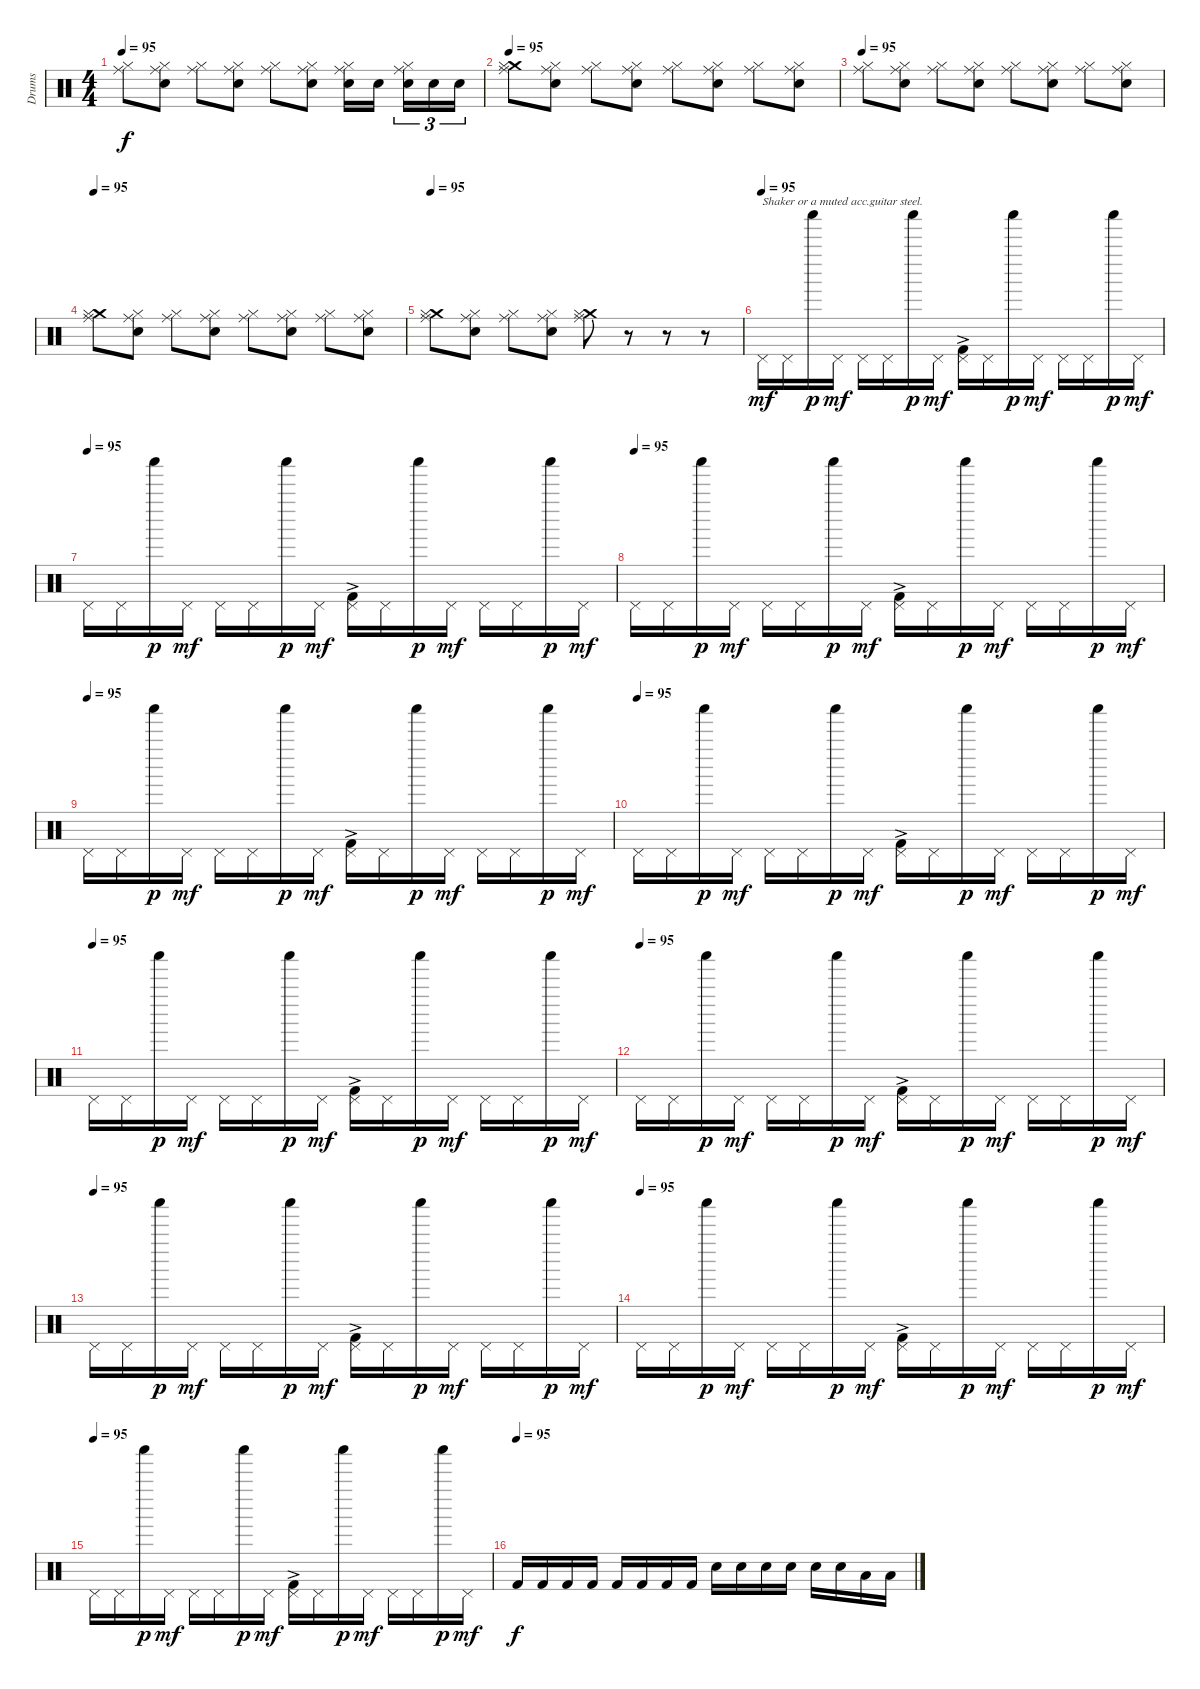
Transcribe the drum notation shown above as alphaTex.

\track ("Drums" "Drums") {instrument percussion}
\staff {score}
\articulation defaults
\ts (4 4)
\tempo 95
\clef neutral
\ks c
("Ride (middle)" "Hi-Hat (closed)").8{dy f} ("Ride (middle)" "Snare (hit) 2" "Hi-Hat (closed)").8 ("Ride (middle)" "Hi-Hat (closed)").8 ("Ride (middle)" "Snare (hit) 2" "Hi-Hat (closed)").8 ("Ride (middle)" "Hi-Hat (closed)").8 ("Ride (middle)" "Snare (hit) 2" "Hi-Hat (closed)").8 ("Ride (middle)" "Snare (hit) 2" "Hi-Hat (closed)").16 "Snare (hit) 2".16 ("Ride (middle)" "Snare (hit) 2" "Hi-Hat (closed)").16{tu (3 2)} "Snare (hit) 2".16{tu (3 2)} "Snare (hit) 2".16{tu (3 2)} |
\tempo 95
("Crash medium (hit)" "Ride (middle)" "Hi-Hat (closed)").8 ("Ride (middle)" "Snare (hit) 2" "Hi-Hat (closed)").8 ("Ride (middle)" "Hi-Hat (closed)").8 ("Ride (middle)" "Snare (hit) 2" "Hi-Hat (closed)").8 ("Ride (middle)" "Hi-Hat (closed)").8 ("Ride (middle)" "Snare (hit) 2" "Hi-Hat (closed)").8 ("Ride (middle)" "Hi-Hat (closed)").8 ("Ride (middle)" "Snare (hit) 2" "Hi-Hat (closed)").8 |
\tempo 95
("Ride (middle)" "Hi-Hat (closed)").8 ("Ride (middle)" "Snare (hit) 2" "Hi-Hat (closed)").8 ("Ride (middle)" "Hi-Hat (closed)").8 ("Ride (middle)" "Snare (hit) 2" "Hi-Hat (closed)").8 ("Ride (middle)" "Hi-Hat (closed)").8 ("Ride (middle)" "Snare (hit) 2" "Hi-Hat (closed)").8 ("Ride (middle)" "Hi-Hat (closed)").8 ("Ride (middle)" "Snare (hit) 2" "Hi-Hat (closed)").8 |
\tempo 95
("Crash medium (hit)" "Ride (middle)" "Hi-Hat (closed)").8 ("Ride (middle)" "Snare (hit) 2" "Hi-Hat (closed)").8 ("Ride (middle)" "Hi-Hat (closed)").8 ("Ride (middle)" "Snare (hit) 2" "Hi-Hat (closed)").8 ("Ride (middle)" "Hi-Hat (closed)").8 ("Ride (middle)" "Snare (hit) 2" "Hi-Hat (closed)").8 ("Ride (middle)" "Hi-Hat (closed)").8 ("Ride (middle)" "Snare (hit) 2" "Hi-Hat (closed)").8 |
\tempo 95
("Crash medium (hit)" "Ride (middle)" "Hi-Hat (closed)").8 ("Ride (middle)" "Snare (hit) 2" "Hi-Hat (closed)").8 ("Ride (middle)" "Hi-Hat (closed)").8 ("Ride (middle)" "Snare (hit) 2" "Hi-Hat (closed)").8 ("Crash medium (hit)" "Ride (middle)" "Hi-Hat (closed)").8 r.8 r.8 r.8 |
\tempo (95)
"Pedal Hi-Hat (hit)"{pm}.16{txt "Shaker or a muted acc.guitar steel." dy mf} "Pedal Hi-Hat (hit)"{pm}.16 "Shaker (hit)".16{dy p} "Pedal Hi-Hat (hit)"{pm}.16{dy mf} "Pedal Hi-Hat (hit)"{pm}.16 "Pedal Hi-Hat (hit)"{pm}.16 "Shaker (hit)".16{dy p} "Pedal Hi-Hat (hit)"{pm}.16{dy mf} ("Kick (hit) 2"{ac} "Pedal Hi-Hat (hit)").16 "Pedal Hi-Hat (hit)"{pm}.16 "Shaker (hit)".16{dy p} "Pedal Hi-Hat (hit)"{pm}.16{dy mf} "Pedal Hi-Hat (hit)"{pm}.16 "Pedal Hi-Hat (hit)"{pm}.16 "Shaker (hit)".16{dy p} "Pedal Hi-Hat (hit)"{pm}.16{dy mf} |
\tempo (95)
"Pedal Hi-Hat (hit)"{pm}.16 "Pedal Hi-Hat (hit)"{pm}.16 "Shaker (hit)".16{dy p} "Pedal Hi-Hat (hit)"{pm}.16{dy mf} "Pedal Hi-Hat (hit)"{pm}.16 "Pedal Hi-Hat (hit)"{pm}.16 "Shaker (hit)".16{dy p} "Pedal Hi-Hat (hit)"{pm}.16{dy mf} ("Kick (hit) 2"{ac} "Pedal Hi-Hat (hit)").16 "Pedal Hi-Hat (hit)"{pm}.16 "Shaker (hit)".16{dy p} "Pedal Hi-Hat (hit)"{pm}.16{dy mf} "Pedal Hi-Hat (hit)"{pm}.16 "Pedal Hi-Hat (hit)"{pm}.16 "Shaker (hit)".16{dy p} "Pedal Hi-Hat (hit)"{pm}.16{dy mf} |
\tempo (95)
"Pedal Hi-Hat (hit)"{pm}.16 "Pedal Hi-Hat (hit)"{pm}.16 "Shaker (hit)".16{dy p} "Pedal Hi-Hat (hit)"{pm}.16{dy mf} "Pedal Hi-Hat (hit)"{pm}.16 "Pedal Hi-Hat (hit)"{pm}.16 "Shaker (hit)".16{dy p} "Pedal Hi-Hat (hit)"{pm}.16{dy mf} ("Kick (hit) 2"{ac} "Pedal Hi-Hat (hit)").16 "Pedal Hi-Hat (hit)"{pm}.16 "Shaker (hit)".16{dy p} "Pedal Hi-Hat (hit)"{pm}.16{dy mf} "Pedal Hi-Hat (hit)"{pm}.16 "Pedal Hi-Hat (hit)"{pm}.16 "Shaker (hit)".16{dy p} "Pedal Hi-Hat (hit)"{pm}.16{dy mf} |
\tempo (95)
"Pedal Hi-Hat (hit)"{pm}.16 "Pedal Hi-Hat (hit)"{pm}.16 "Shaker (hit)".16{dy p} "Pedal Hi-Hat (hit)"{pm}.16{dy mf} "Pedal Hi-Hat (hit)"{pm}.16 "Pedal Hi-Hat (hit)"{pm}.16 "Shaker (hit)".16{dy p} "Pedal Hi-Hat (hit)"{pm}.16{dy mf} ("Kick (hit) 2"{ac} "Pedal Hi-Hat (hit)").16 "Pedal Hi-Hat (hit)"{pm}.16 "Shaker (hit)".16{dy p} "Pedal Hi-Hat (hit)"{pm}.16{dy mf} "Pedal Hi-Hat (hit)"{pm}.16 "Pedal Hi-Hat (hit)"{pm}.16 "Shaker (hit)".16{dy p} "Pedal Hi-Hat (hit)"{pm}.16{dy mf} |
\tempo (95)
"Pedal Hi-Hat (hit)"{pm}.16 "Pedal Hi-Hat (hit)"{pm}.16 "Shaker (hit)".16{dy p} "Pedal Hi-Hat (hit)"{pm}.16{dy mf} "Pedal Hi-Hat (hit)"{pm}.16 "Pedal Hi-Hat (hit)"{pm}.16 "Shaker (hit)".16{dy p} "Pedal Hi-Hat (hit)"{pm}.16{dy mf} ("Kick (hit) 2"{ac} "Pedal Hi-Hat (hit)").16 "Pedal Hi-Hat (hit)"{pm}.16 "Shaker (hit)".16{dy p} "Pedal Hi-Hat (hit)"{pm}.16{dy mf} "Pedal Hi-Hat (hit)"{pm}.16 "Pedal Hi-Hat (hit)"{pm}.16 "Shaker (hit)".16{dy p} "Pedal Hi-Hat (hit)"{pm}.16{dy mf} |
\tempo (95)
"Pedal Hi-Hat (hit)"{pm}.16 "Pedal Hi-Hat (hit)"{pm}.16 "Shaker (hit)".16{dy p} "Pedal Hi-Hat (hit)"{pm}.16{dy mf} "Pedal Hi-Hat (hit)"{pm}.16 "Pedal Hi-Hat (hit)"{pm}.16 "Shaker (hit)".16{dy p} "Pedal Hi-Hat (hit)"{pm}.16{dy mf} ("Kick (hit) 2"{ac} "Pedal Hi-Hat (hit)").16 "Pedal Hi-Hat (hit)"{pm}.16 "Shaker (hit)".16{dy p} "Pedal Hi-Hat (hit)"{pm}.16{dy mf} "Pedal Hi-Hat (hit)"{pm}.16 "Pedal Hi-Hat (hit)"{pm}.16 "Shaker (hit)".16{dy p} "Pedal Hi-Hat (hit)"{pm}.16{dy mf} |
\tempo (95)
"Pedal Hi-Hat (hit)"{pm}.16 "Pedal Hi-Hat (hit)"{pm}.16 "Shaker (hit)".16{dy p} "Pedal Hi-Hat (hit)"{pm}.16{dy mf} "Pedal Hi-Hat (hit)"{pm}.16 "Pedal Hi-Hat (hit)"{pm}.16 "Shaker (hit)".16{dy p} "Pedal Hi-Hat (hit)"{pm}.16{dy mf} ("Kick (hit) 2"{ac} "Pedal Hi-Hat (hit)").16 "Pedal Hi-Hat (hit)"{pm}.16 "Shaker (hit)".16{dy p} "Pedal Hi-Hat (hit)"{pm}.16{dy mf} "Pedal Hi-Hat (hit)"{pm}.16 "Pedal Hi-Hat (hit)"{pm}.16 "Shaker (hit)".16{dy p} "Pedal Hi-Hat (hit)"{pm}.16{dy mf} |
\tempo (95)
"Pedal Hi-Hat (hit)"{pm}.16 "Pedal Hi-Hat (hit)"{pm}.16 "Shaker (hit)".16{dy p} "Pedal Hi-Hat (hit)"{pm}.16{dy mf} "Pedal Hi-Hat (hit)"{pm}.16 "Pedal Hi-Hat (hit)"{pm}.16 "Shaker (hit)".16{dy p} "Pedal Hi-Hat (hit)"{pm}.16{dy mf} ("Kick (hit) 2"{ac} "Pedal Hi-Hat (hit)").16 "Pedal Hi-Hat (hit)"{pm}.16 "Shaker (hit)".16{dy p} "Pedal Hi-Hat (hit)"{pm}.16{dy mf} "Pedal Hi-Hat (hit)"{pm}.16 "Pedal Hi-Hat (hit)"{pm}.16 "Shaker (hit)".16{dy p} "Pedal Hi-Hat (hit)"{pm}.16{dy mf} |
\tempo (95)
"Pedal Hi-Hat (hit)"{pm}.16 "Pedal Hi-Hat (hit)"{pm}.16 "Shaker (hit)".16{dy p} "Pedal Hi-Hat (hit)"{pm}.16{dy mf} "Pedal Hi-Hat (hit)"{pm}.16 "Pedal Hi-Hat (hit)"{pm}.16 "Shaker (hit)".16{dy p} "Pedal Hi-Hat (hit)"{pm}.16{dy mf} ("Kick (hit) 2"{ac} "Pedal Hi-Hat (hit)").16 "Pedal Hi-Hat (hit)"{pm}.16 "Shaker (hit)".16{dy p} "Pedal Hi-Hat (hit)"{pm}.16{dy mf} "Pedal Hi-Hat (hit)"{pm}.16 "Pedal Hi-Hat (hit)"{pm}.16 "Shaker (hit)".16{dy p} "Pedal Hi-Hat (hit)"{pm}.16{dy mf} |
\tempo (95)
"Pedal Hi-Hat (hit)"{pm}.16 "Pedal Hi-Hat (hit)"{pm}.16 "Shaker (hit)".16{dy p} "Pedal Hi-Hat (hit)"{pm}.16{dy mf} "Pedal Hi-Hat (hit)"{pm}.16 "Pedal Hi-Hat (hit)"{pm}.16 "Shaker (hit)".16{dy p} "Pedal Hi-Hat (hit)"{pm}.16{dy mf} ("Kick (hit) 2"{ac} "Pedal Hi-Hat (hit)").16 "Pedal Hi-Hat (hit)"{pm}.16 "Shaker (hit)".16{dy p} "Pedal Hi-Hat (hit)"{pm}.16{dy mf} "Pedal Hi-Hat (hit)"{pm}.16 "Pedal Hi-Hat (hit)"{pm}.16 "Shaker (hit)".16{dy p} "Pedal Hi-Hat (hit)"{pm}.16{dy mf} |
\tempo (95)
"Kick (hit) 2".16{dy f} "Kick (hit) 2".16 "Kick (hit) 2".16 "Kick (hit) 2".16 "Kick (hit) 2".16 "Kick (hit) 2".16 "Kick (hit) 2".16 "Kick (hit) 2".16 "Snare (hit) 2".16 "Snare (hit) 2".16 "Snare (hit) 2".16 "Snare (hit) 2".16 "Snare (hit) 2".16 "Snare (hit) 2".16 "Low Tom (hit)".16 "Low Tom (hit)".16
